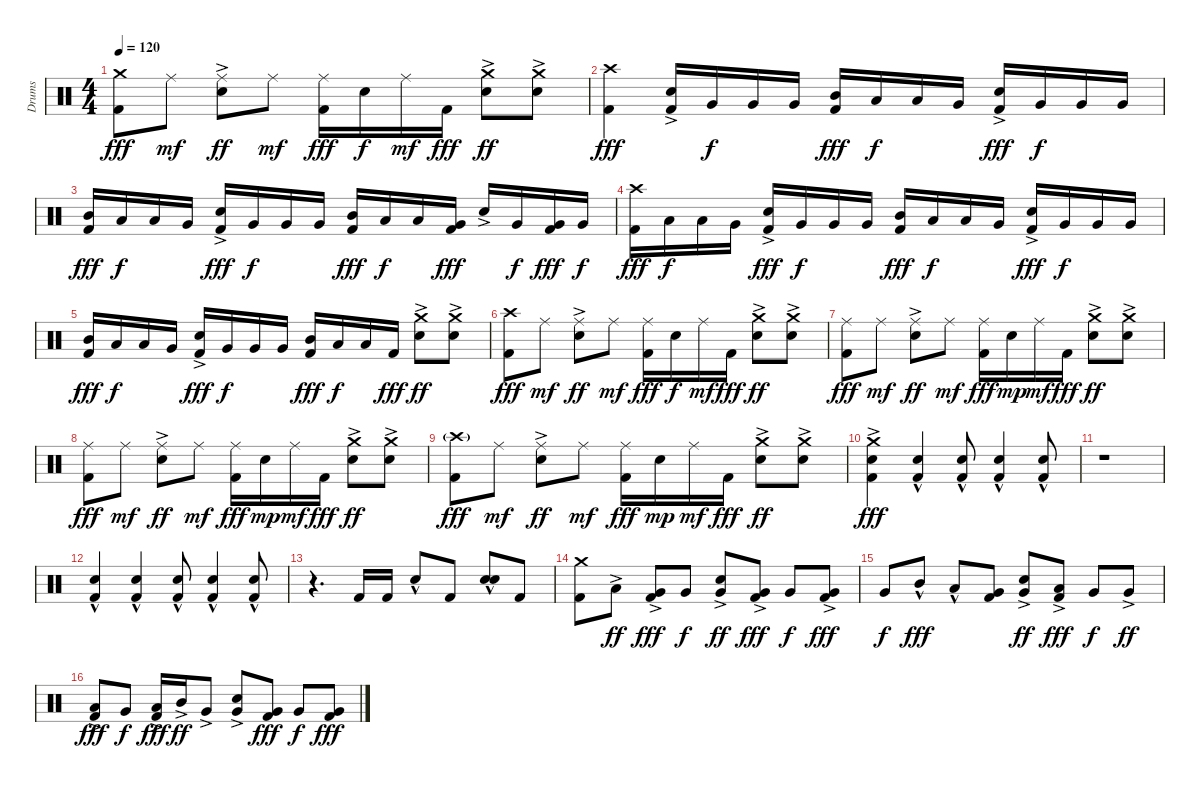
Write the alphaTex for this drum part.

\track ("Drums" "Drums") {instrument percussion}
\staff {score}
\articulation defaults
\ts (4 4)
\tempo 120
\clef neutral
\ks c
("Crash medium (hit)" "Kick (hit) 2").8{dy fff} "Ride (middle)".8{dy mf} ("Ride (middle)" "Snare (hit) 2"{ac}).8{dy ff} "Ride (middle)".8{dy mf} ("Ride (middle)" "Kick (hit) 2").16{dy fff} "Snare (hit) 2".16{dy f} "Ride (middle)".16{dy mf} "Kick (hit) 2".16{dy fff} ("Crash medium (hit)" "Snare (hit) 2"{ac}).8{dy ff} ("Crash medium (hit)" "Snare (hit) 2"{ac}).8 |
("Crash high (hit)" "Kick (hit) 2").4{dy fff} ("Snare (hit) 2"{ac} "Kick (hit) 2").16 "Very Low Tom (hit)".16{dy f} "Very Low Tom (hit)".16 "Very Low Tom (hit)".16 ("Mid Tom (hit)" "Kick (hit) 2").16{dy fff} "Low Tom (hit)".16{dy f} "Low Tom (hit)".16 "Very Low Tom (hit)".16 ("Snare (hit) 2"{ac} "Kick (hit) 2").16{dy fff} "Very Low Tom (hit)".16{dy f} "Very Low Tom (hit)".16 "Very Low Tom (hit)".16 |
("Mid Tom (hit)" "Kick (hit) 2").16{dy fff} "Low Tom (hit)".16{dy f} "Low Tom (hit)".16 "Very Low Tom (hit)".16 ("Snare (hit) 2"{ac} "Kick (hit) 2").16{dy fff} "Very Low Tom (hit)".16{dy f} "Very Low Tom (hit)".16 "Very Low Tom (hit)".16 ("Mid Tom (hit)" "Kick (hit) 2").16{dy fff} "Low Tom (hit)".16{dy f} "Low Tom (hit)".16 ("Very Low Tom (hit)" "Kick (hit) 2").16{dy fff} "Snare (hit) 2"{ac}.16 "Very Low Tom (hit)".16{dy f} ("Very Low Tom (hit)" "Kick (hit) 2").16{dy fff} "Very Low Tom (hit)".16{dy f} |
("Crash high (hit)" "Kick (hit) 2").16{dy fff} "Low Tom (hit)".16{dy f} "Low Tom (hit)".16 "Very Low Tom (hit)".16 ("Snare (hit) 2"{ac} "Kick (hit) 2").16{dy fff} "Very Low Tom (hit)".16{dy f} "Very Low Tom (hit)".16 "Very Low Tom (hit)".16 ("Mid Tom (hit)" "Kick (hit) 2").16{dy fff} "Low Tom (hit)".16{dy f} "Low Tom (hit)".16 "Very Low Tom (hit)".16 ("Snare (hit) 2"{ac} "Kick (hit) 2").16{dy fff} "Very Low Tom (hit)".16{dy f} "Very Low Tom (hit)".16 "Very Low Tom (hit)".16 |
("Mid Tom (hit)" "Kick (hit) 2").16{dy fff} "Low Tom (hit)".16{dy f} "Low Tom (hit)".16 "Very Low Tom (hit)".16 ("Snare (hit) 2"{ac} "Kick (hit) 2").16{dy fff} "Very Low Tom (hit)".16{dy f} "Very Low Tom (hit)".16 "Very Low Tom (hit)".16 ("Mid Tom (hit)" "Kick (hit) 2").16{dy fff} "Low Tom (hit)".16{dy f} "Low Tom (hit)".16 "Kick (hit) 2".16{dy fff} ("Crash medium (hit)" "Snare (hit) 2"{ac}).8{dy ff} ("Crash medium (hit)" "Snare (hit) 2"{ac}).8 |
("Crash high (hit)" "Kick (hit) 2").8{dy fff} "Ride (middle)".8{dy mf} ("Ride (middle)" "Snare (hit) 2"{ac}).8{dy ff} "Ride (middle)".8{dy mf} ("Ride (middle)" "Kick (hit) 2").16{dy fff} "Snare (hit) 2".16{dy f} "Ride (middle)".16{dy mf} "Kick (hit) 2".16{dy fff} ("Crash medium (hit)" "Snare (hit) 2"{ac}).8{dy ff} ("Crash medium (hit)" "Snare (hit) 2"{ac}).8 |
("Ride (middle)" "Kick (hit) 2").8{dy fff} "Ride (middle)".8{dy mf} ("Ride (middle)" "Snare (hit) 2"{ac}).8{dy ff} "Ride (middle)".8{dy mf} ("Ride (middle)" "Kick (hit) 2").16{dy fff} "Snare (hit) 2".16{dy mp} "Ride (middle)".16{dy mf} "Kick (hit) 2".16{dy fff} ("Crash medium (hit)" "Snare (hit) 2"{ac}).8{dy ff} ("Crash medium (hit)" "Snare (hit) 2"{ac}).8 |
("Ride (middle)" "Kick (hit) 2").8{dy fff} "Ride (middle)".8{dy mf} ("Ride (middle)" "Snare (hit) 2"{ac}).8{dy ff} "Ride (middle)".8{dy mf} ("Ride (middle)" "Kick (hit) 2").16{dy fff} "Snare (hit) 2".16{dy mp} "Ride (middle)".16{dy mf} "Kick (hit) 2".16{dy fff} ("Crash medium (hit)" "Snare (hit) 2"{ac}).8{dy ff} ("Crash medium (hit)" "Snare (hit) 2"{ac}).8 |
("Crash high (hit)"{g} "Kick (hit) 2").8{dy fff} "Ride (middle)".8{dy mf} ("Ride (middle)" "Snare (hit) 2"{ac}).8{dy ff} "Ride (middle)".8{dy mf} ("Ride (middle)" "Kick (hit) 2").16{dy fff} "Snare (hit) 2".16{dy mp} "Ride (middle)".16{dy mf} "Kick (hit) 2".16{dy fff} ("Crash medium (hit)" "Snare (hit) 2"{ac}).8{dy ff} ("Crash medium (hit)" "Snare (hit) 2"{ac}).8 |
("Crash medium (hit)" "Snare (hit) 2"{ac} "Kick (hit) 2").4{dy fff} ("Snare (hit) 2"{hac} "Kick (hit) 2").4 ("Snare (hit) 2"{hac} "Kick (hit) 2").8 ("Snare (hit) 2"{hac} "Kick (hit) 2").4 ("Snare (hit) 2"{hac} "Kick (hit) 2").8 |
r.1 |
("Snare (hit) 2"{hac} "Kick (hit) 2").4 ("Snare (hit) 2"{hac} "Kick (hit) 2").4 ("Snare (hit) 2"{hac} "Kick (hit) 2").8 ("Snare (hit) 2"{hac} "Kick (hit) 2").4 ("Snare (hit) 2"{hac} "Kick (hit) 2").8 |
r.4{d} "Kick (hit) 2".16 "Kick (hit) 2".16 "Snare (hit) 2"{hac}.8 "Kick (hit) 2".8 ("Snare (hit) 2"{hac} "Snare (hit) 2"{hac}).8{bd 120} "Kick (hit) 2".8 |
("Crash medium (hit)" "Kick (hit) 2").8 "Low Tom (hit)"{ac}.8{dy ff} ("Very Low Tom (hit)"{ac} "Kick (hit) 2").8{dy fff} "Very Low Tom (hit)".8{dy f} ("Snare (hit) 2"{ac} "Very Low Tom (hit)"{ac}).8{dy ff} ("Very Low Tom (hit)"{ac} "Kick (hit) 2").8{dy fff} "Very Low Tom (hit)".8{dy f} ("Very Low Tom (hit)"{ac} "Kick (hit) 2").8{dy fff} |
"Very Low Tom (hit)".8{dy f} "Mid Tom (hit)"{hac}.8{dy fff} "Low Tom (hit)"{hac}.8 ("Very Low Tom (hit)" "Kick (hit) 2").8 ("Snare (hit) 2"{ac} "Very Low Tom (hit)").8{dy ff} ("Low Tom (hit)"{ac} "Kick (hit) 2").8{dy fff} "Very Low Tom (hit)".8{dy f} "Very Low Tom (hit)"{ac}.8{dy ff} |
("Low Tom (hit)"{ac} "Kick (hit) 2").8{dy fff} "Very Low Tom (hit)".8{dy f} ("Low Tom (hit)"{ac} "Kick (hit) 2").16{dy fff} "Mid Tom (hit)"{ac}.16{dy ff} "Very Low Tom (hit)"{ac}.8 ("Snare (hit) 2"{ac} "Very Low Tom (hit)").8 ("Very Low Tom (hit)" "Kick (hit) 2").8{dy fff} "Very Low Tom (hit)".8{dy f} ("Very Low Tom (hit)" "Kick (hit) 2").8{dy fff}
